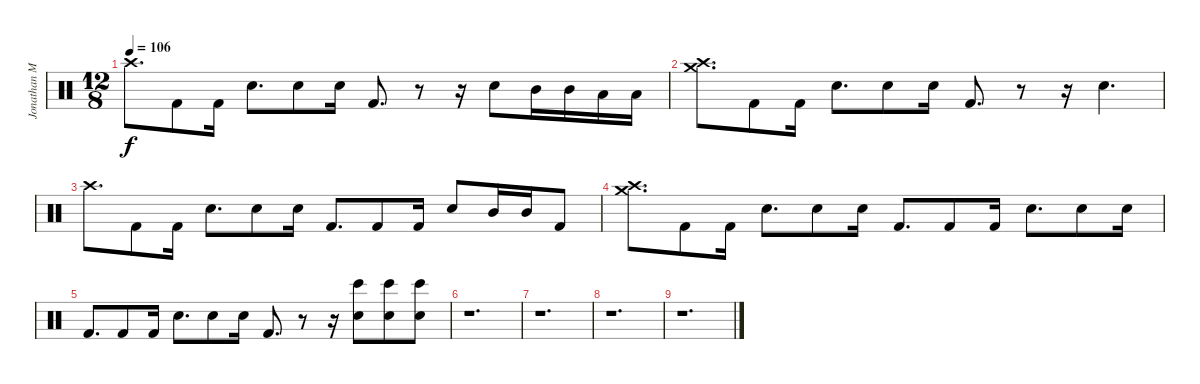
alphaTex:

\track ("Jonathan Mover (Studio Drummer)" "Jonathan M") {instrument percussion}
\staff {score}
\articulation defaults
\ts (12 8)
\tempo 106
\clef neutral
\ks c "Crash high (hit)".8{d dy f} "Kick (hit) 2".8 "Kick (hit) 2".16 "Electric Snare (hit)".8{d} "Electric Snare (hit)".8 "Electric Snare (hit)".16 "Kick (hit) 2".8{d}
r.8 r.16 "Electric Snare (hit)".8 "Mid Tom (hit)".16 "Mid Tom (hit)".16 "Low Tom (hit)".16 "Low Tom (hit)".16 |
("Crash high (hit)" "Crash medium (hit)").8{d} "Kick (hit) 2".8 "Kick (hit) 2".16 "Electric Snare (hit)".8{d} "Electric Snare (hit)".8 "Electric Snare (hit)".16 "Kick (hit) 2".8{d} r.8 r.16 "Electric Snare (hit)".4{d} |
"Crash high (hit)".8{d} "Kick (hit) 2".8 "Kick (hit) 2".16 "Electric Snare (hit)".8{d} "Electric Snare (hit)".8 "Electric Snare (hit)".16 "Kick (hit) 2".8{d} "Kick (hit) 2".8 "Kick (hit) 2".16 "Electric Snare (hit)".8 "Mid Tom (hit)".16 "Mid Tom (hit)".16 "Kick (hit) 2".8 |
("Crash high (hit)" "Crash medium (hit)").8{d} "Kick (hit) 2".8 "Kick (hit) 2".16 "Electric Snare (hit)".8{d} "Electric Snare (hit)".8 "Electric Snare (hit)".16 "Kick (hit) 2".8{d} "Kick (hit) 2".8 "Kick (hit) 2".16 "Electric Snare (hit)".8{d} "Electric Snare (hit)".8 "Electric Snare (hit)".16 |
"Kick (hit) 2".8{d} "Kick (hit) 2".8 "Kick (hit) 2".16 "Electric Snare (hit)".8{d} "Electric Snare (hit)".8 "Electric Snare (hit)".16 "Kick (hit) 2".8{d} r.8 r.16 ("Electric Snare (hit)" "Bongo High (hit)").8 ("Electric Snare (hit)" "Bongo High (hit)").8 ("Electric Snare (hit)" "Bongo High (hit)").8 |
r.1{d} |
r.1{d} |
r.1{d} |
r.1{d}
